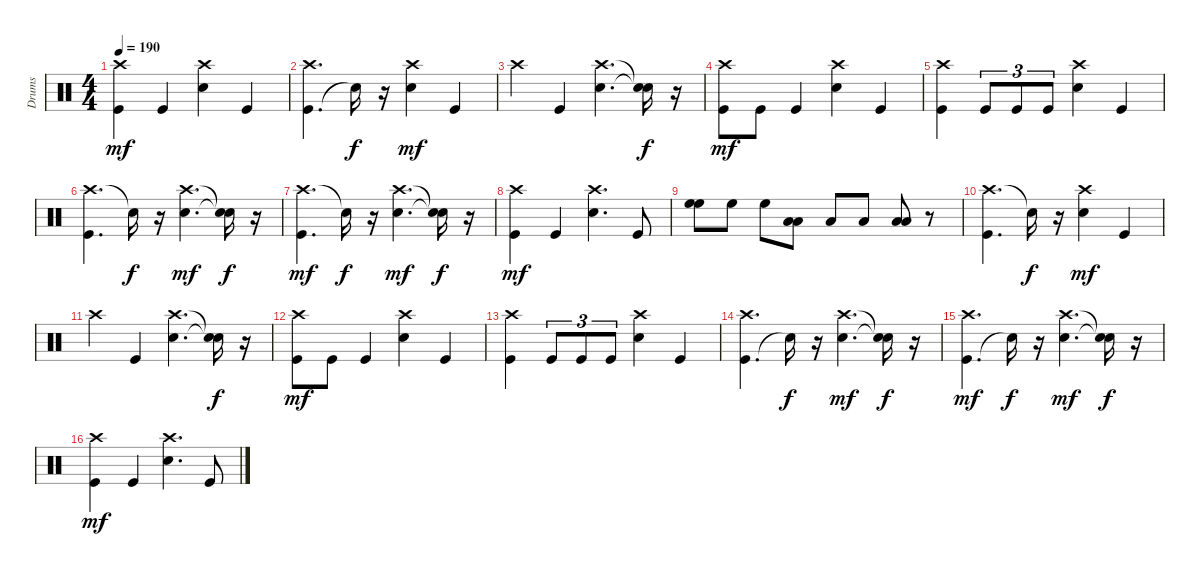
\track ("Drums" "Drums") {instrument percussion}
\staff {score}
\articulation defaults
\ts (4 4)
\tempo 190
\clef neutral
\ks c
("Crash high (hit)" "Kick (hit)").4{dy mf} "Kick (hit)".4 ("Snare (hit) 2" "Crash high (hit)").4 "Kick (hit)".4 |
("Kick (hit)" "Crash high (hit)").4{d} "Snare (hit)"{t}.16{dy f} r.16 ("Snare (hit) 2" "Crash high (hit)").4{dy mf} "Kick (hit)".4 |
"Crash high (hit)".4 "Kick (hit)".4 ("Snare (hit) 2" "Crash high (hit)").4{d} ("Snare (hit)"{t} "Snare (hit)"{t}).16{dy f} r.16 |
("Crash high (hit)" "Kick (hit)").8{dy mf} "Kick (hit)".8 "Kick (hit)".4 ("Snare (hit) 2" "Crash high (hit)").4 "Kick (hit)".4 |
("Crash high (hit)" "Kick (hit)").4 "Kick (hit)".8{tu (3 2)} "Kick (hit)".8{tu (3 2)} "Kick (hit)".8{tu (3 2)} ("Snare (hit) 2" "Crash high (hit)").4 "Kick (hit)".4 |
("Crash high (hit)" "Kick (hit)").4{d} "Snare (hit)"{t}.16{dy f} r.16 ("Snare (hit) 2" "Crash high (hit)").4{d dy mf} ("Snare (hit)"{t} "Snare (hit)"{t}).16{dy f} r.16 |
("Crash high (hit)" "Kick (hit)").4{d dy mf} "Snare (hit)"{t}.16{dy f} r.16 ("Snare (hit) 2" "Crash high (hit)").4{d dy mf} ("Snare (hit)"{t} "Snare (hit)"{t}).16{dy f} r.16 |
("Kick (hit)" "Crash high (hit)").4{dy mf} "Kick (hit)".4 ("Snare (hit) 2" "Crash high (hit)").4{d} "Kick (hit)".8 |
("High Floor Tom (hit)" "High Floor Tom (hit)").8 "High Floor Tom (hit)".8 "High Floor Tom (hit)".8 ("Low Tom (hit)" "Low Tom (hit)").8 "Low Tom (hit)".8 "Low Tom (hit)".8 ("Low Floor Tom (hit)" "Low Floor Tom (hit)").8 r.8 |
("Crash high (hit)" "Kick (hit)").4{d} "Snare (hit)"{t}.16{dy f} r.16 ("Snare (hit) 2" "Crash high (hit)").4{dy mf} "Kick (hit)".4 |
"Crash high (hit)".4 "Kick (hit)".4 ("Snare (hit) 2" "Crash high (hit)").4{d} ("Snare (hit)"{t} "Snare (hit)"{t}).16{dy f} r.16 |
("Kick (hit)" "Crash high (hit)").8{dy mf} "Kick (hit)".8 "Kick (hit)".4 ("Snare (hit) 2" "Crash high (hit)").4 "Kick (hit)".4 |
("Kick (hit)" "Crash high (hit)").4 "Kick (hit)".8{tu (3 2)} "Kick (hit)".8{tu (3 2)} "Kick (hit)".8{tu (3 2)} ("Snare (hit) 2" "Crash high (hit)").4 "Kick (hit)".4 |
("Kick (hit)" "Crash high (hit)").4{d} "Snare (hit)"{t}.16{dy f} r.16 ("Snare (hit) 2" "Crash high (hit)").4{d dy mf} ("Snare (hit)"{t} "Snare (hit)"{t}).16{dy f} r.16 |
("Kick (hit)" "Crash high (hit)").4{d dy mf} "Snare (hit)"{t}.16{dy f} r.16 ("Snare (hit) 2" "Crash high (hit)").4{d dy mf} ("Snare (hit)"{t} "Snare (hit)"{t}).16{dy f} r.16 |
("Crash high (hit)" "Kick (hit)").4{dy mf} "Kick (hit)".4 ("Snare (hit) 2" "Crash high (hit)").4{d} "Kick (hit)".8
